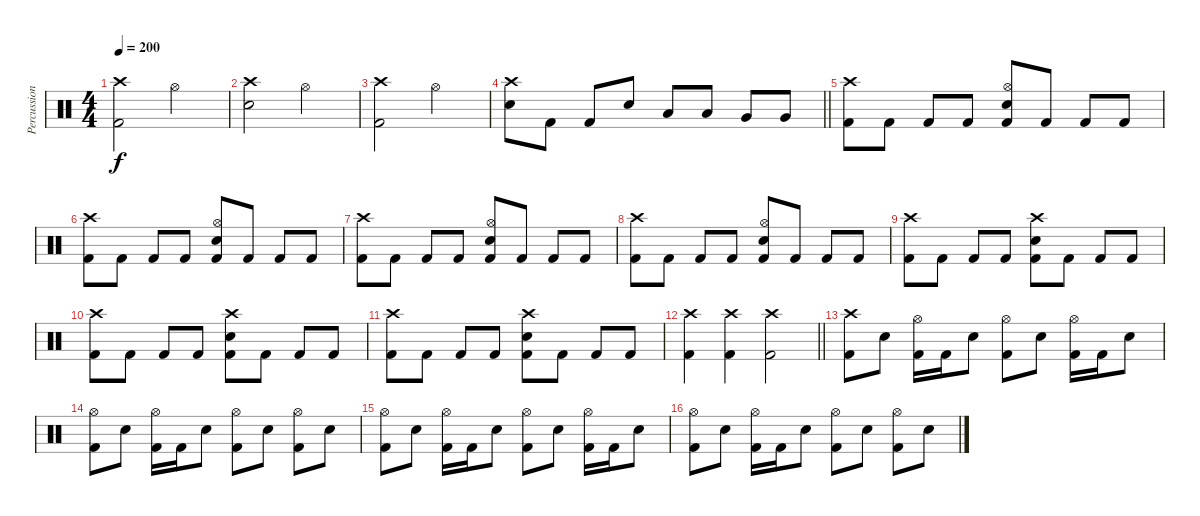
\track ("Percussion" "Percussion") {instrument percussion}
\staff {score}
\articulation defaults
\ts (4 4)
\tempo 200
\clef neutral
\ks c
("Crash high (hit)" "Kick (hit) 2").2{dy f} "Hi-Hat (open)".2 |
("Crash high (hit)" "Electric Snare (hit)").2 "Hi-Hat (open)".2 |
("Crash high (hit)" "Kick (hit) 2").2 "Hi-Hat (open)".2 |
\barLineRight lightlight
("Crash high (hit)" "Electric Snare (hit)").8 "Kick (hit) 2".8 "Kick (hit) 2".8 "Electric Snare (hit)".8 "Low Tom (hit)".8 "Low Tom (hit)".8 "Very Low Tom (hit)".8 "Very Low Tom (hit)".8 |
\section ("" "")
("Crash high (hit)" "Kick (hit) 2").8 "Kick (hit) 2".8 "Kick (hit) 2".8 "Kick (hit) 2".8 ("Hi-Hat (open)" "Electric Snare (hit)" "Kick (hit) 2").8 "Kick (hit) 2".8 "Kick (hit) 2".8 "Kick (hit) 2".8 |
("Crash high (hit)" "Kick (hit) 2").8 "Kick (hit) 2".8 "Kick (hit) 2".8 "Kick (hit) 2".8 ("Hi-Hat (open)" "Electric Snare (hit)" "Kick (hit) 2").8 "Kick (hit) 2".8 "Kick (hit) 2".8 "Kick (hit) 2".8 |
("Crash high (hit)" "Kick (hit) 2").8 "Kick (hit) 2".8 "Kick (hit) 2".8 "Kick (hit) 2".8 ("Hi-Hat (open)" "Electric Snare (hit)" "Kick (hit) 2").8 "Kick (hit) 2".8 "Kick (hit) 2".8 "Kick (hit) 2".8 |
("Crash high (hit)" "Kick (hit) 2").8 "Kick (hit) 2".8 "Kick (hit) 2".8 "Kick (hit) 2".8 ("Hi-Hat (open)" "Electric Snare (hit)" "Kick (hit) 2").8 "Kick (hit) 2".8 "Kick (hit) 2".8 "Kick (hit) 2".8 |
("Crash high (hit)" "Kick (hit) 2").8 "Kick (hit) 2".8 "Kick (hit) 2".8 "Kick (hit) 2".8 ("Crash high (hit)" "Electric Snare (hit)" "Kick (hit) 2").8 "Kick (hit) 2".8 "Kick (hit) 2".8 "Kick (hit) 2".8 |
("Crash high (hit)" "Kick (hit) 2").8 "Kick (hit) 2".8 "Kick (hit) 2".8 "Kick (hit) 2".8 ("Crash high (hit)" "Electric Snare (hit)" "Kick (hit) 2").8 "Kick (hit) 2".8 "Kick (hit) 2".8 "Kick (hit) 2".8 |
("Crash high (hit)" "Kick (hit) 2").8 "Kick (hit) 2".8 "Kick (hit) 2".8 "Kick (hit) 2".8 ("Crash high (hit)" "Electric Snare (hit)" "Kick (hit) 2").8 "Kick (hit) 2".8 "Kick (hit) 2".8 "Kick (hit) 2".8 |
\barLineRight lightlight
("Crash high (hit)" "Kick (hit) 2").4 ("Crash high (hit)" "Kick (hit) 2").4 ("Crash high (hit)" "Kick (hit) 2").2 |
\section ("" "")
("Crash high (hit)" "Kick (hit) 2").8 "Electric Snare (hit)".8 ("Hi-Hat (open)" "Kick (hit) 2").16 "Kick (hit) 2".16 "Electric Snare (hit)".8 ("Hi-Hat (open)" "Kick (hit) 2").8 "Electric Snare (hit)".8 ("Hi-Hat (open)" "Kick (hit) 2").16 "Kick (hit) 2".16 "Electric Snare (hit)".8 |
("Hi-Hat (open)" "Kick (hit) 2").8 "Electric Snare (hit)".8 ("Hi-Hat (open)" "Kick (hit) 2").16 "Kick (hit) 2".16 "Electric Snare (hit)".8 ("Hi-Hat (open)" "Kick (hit) 2").8 "Electric Snare (hit)".8 ("Hi-Hat (open)" "Kick (hit) 2").8 "Electric Snare (hit)".8 |
("Hi-Hat (open)" "Kick (hit) 2").8 "Electric Snare (hit)".8 ("Hi-Hat (open)" "Kick (hit) 2").16 "Kick (hit) 2".16 "Electric Snare (hit)".8 ("Hi-Hat (open)" "Kick (hit) 2").8 "Electric Snare (hit)".8 ("Hi-Hat (open)" "Kick (hit) 2").16 "Kick (hit) 2".16 "Electric Snare (hit)".8 |
("Hi-Hat (open)" "Kick (hit) 2").8 "Electric Snare (hit)".8 ("Hi-Hat (open)" "Kick (hit) 2").16 "Kick (hit) 2".16 "Electric Snare (hit)".8 ("Hi-Hat (open)" "Kick (hit) 2").8 "Electric Snare (hit)".8 ("Hi-Hat (open)" "Kick (hit) 2").8 "Electric Snare (hit)".8
